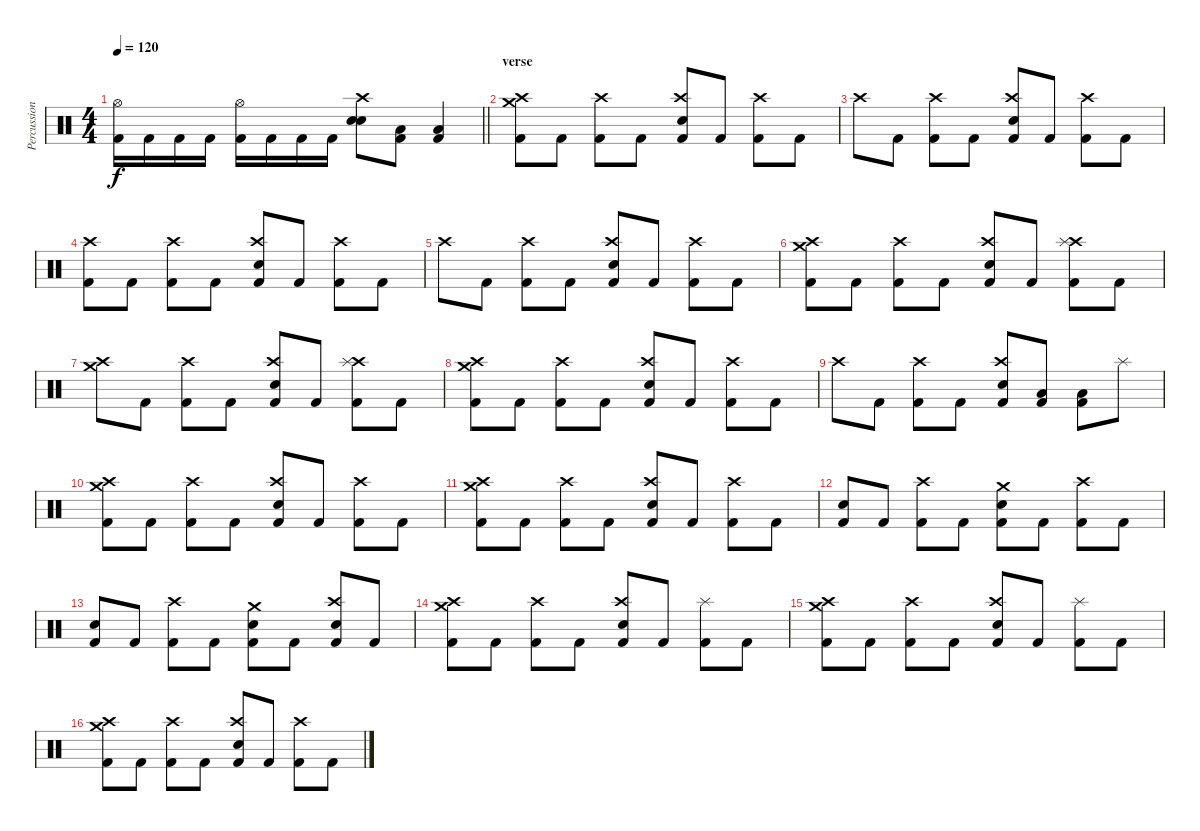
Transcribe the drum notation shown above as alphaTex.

\track ("Percussion" "Percussion") {instrument percussion}
\staff {score}
\articulation defaults
\ts (4 4)
\tempo 120
\clef neutral
\barLineRight lightlight
\ks c
("Hi-Hat (open)" "Kick (hit) 2").16{dy f} "Kick (hit) 2".16 "Kick (hit) 2".16 "Kick (hit) 2".16 ("Hi-Hat (open)" "Kick (hit) 2").16 "Kick (hit) 2".16 "Kick (hit) 2".16 "Kick (hit) 2".16 ("Crash high (hit)" "Electric Snare (hit)" "Electric Snare (hit)").8 ("Low Tom (hit)" "Kick (hit) 2").8 ("Low Tom (hit)" "Kick (hit) 2").4 |
\section ("" "verse")
("Crash high (hit)" "Crash medium (hit)" "Kick (hit) 2").8 "Kick (hit) 2".8 ("Crash high (hit)" "Kick (hit) 2").8 "Kick (hit) 2".8 ("Crash high (hit)" "Electric Snare (hit)" "Kick (hit) 2").8 "Kick (hit) 2".8 ("Crash high (hit)" "Kick (hit) 2").8 "Kick (hit) 2".8 |
"Crash high (hit)".8 "Kick (hit) 2".8 ("Crash high (hit)" "Kick (hit) 2").8 "Kick (hit) 2".8 ("Crash high (hit)" "Electric Snare (hit)" "Kick (hit) 2").8 "Kick (hit) 2".8 ("Crash high (hit)" "Kick (hit) 2").8 "Kick (hit) 2".8 |
("Crash high (hit)" "Kick (hit) 2").8 "Kick (hit) 2".8 ("Crash high (hit)" "Kick (hit) 2").8 "Kick (hit) 2".8 ("Crash high (hit)" "Electric Snare (hit)" "Kick (hit) 2").8 "Kick (hit) 2".8 ("Crash high (hit)" "Kick (hit) 2").8 "Kick (hit) 2".8 |
"Crash high (hit)".8 "Kick (hit) 2".8 ("Crash high (hit)" "Kick (hit) 2").8 "Kick (hit) 2".8 ("Crash high (hit)" "Electric Snare (hit)" "Kick (hit) 2").8 "Kick (hit) 2".8 ("Crash high (hit)" "Kick (hit) 2").8 "Kick (hit) 2".8 |
("Crash high (hit)" "Crash medium (hit)" "Kick (hit) 2").8 "Kick (hit) 2".8 ("Crash high (hit)" "Kick (hit) 2").8 "Kick (hit) 2".8 ("Crash high (hit)" "Electric Snare (hit)" "Kick (hit) 2").8 "Kick (hit) 2".8 ("Crash high (hit)" "Splash (hit)" "Kick (hit) 2").8 "Kick (hit) 2".8 |
("Crash high (hit)" "Crash medium (hit)").8 "Kick (hit) 2".8 ("Crash high (hit)" "Kick (hit) 2").8 "Kick (hit) 2".8 ("Crash high (hit)" "Electric Snare (hit)" "Kick (hit) 2").8 "Kick (hit) 2".8 ("Crash high (hit)" "Splash (hit)" "Kick (hit) 2").8 "Kick (hit) 2".8 |
("Crash high (hit)" "Crash medium (hit)" "Kick (hit) 2").8 "Kick (hit) 2".8 ("Crash high (hit)" "Kick (hit) 2").8 "Kick (hit) 2".8 ("Crash high (hit)" "Electric Snare (hit)" "Kick (hit) 2").8 "Kick (hit) 2".8 ("Crash high (hit)" "Kick (hit) 2").8 "Kick (hit) 2".8 |
"Crash high (hit)".8 "Kick (hit) 2".8 ("Crash high (hit)" "Kick (hit) 2").8 "Kick (hit) 2".8 ("Crash high (hit)" "Electric Snare (hit)" "Kick (hit) 2").8 ("Low Tom (hit)" "Kick (hit) 2").8 ("Low Tom (hit)" "Kick (hit) 2").8 "Splash (hit)".8 |
("Crash high (hit)" "Crash medium (hit)" "Kick (hit) 2").8 "Kick (hit) 2".8 ("Crash high (hit)" "Kick (hit) 2").8 "Kick (hit) 2".8 ("Crash high (hit)" "Electric Snare (hit)" "Kick (hit) 2").8 "Kick (hit) 2".8 ("Crash high (hit)" "Kick (hit) 2").8 "Kick (hit) 2".8 |
("Crash high (hit)" "Crash medium (hit)" "Kick (hit) 2").8 "Kick (hit) 2".8 ("Crash high (hit)" "Kick (hit) 2").8 "Kick (hit) 2".8 ("Crash high (hit)" "Electric Snare (hit)" "Kick (hit) 2").8 "Kick (hit) 2".8 ("Crash high (hit)" "Kick (hit) 2").8 "Kick (hit) 2".8 |
("Electric Snare (hit)" "Kick (hit) 2").8 "Kick (hit) 2".8 ("Crash high (hit)" "Kick (hit) 2").8 "Kick (hit) 2".8 ("Crash medium (hit)" "Electric Snare (hit)" "Kick (hit) 2").8 "Kick (hit) 2".8 ("Kick (hit) 2" "Crash high (hit)").8 "Kick (hit) 2".8 |
("Electric Snare (hit)" "Kick (hit) 2").8 "Kick (hit) 2".8 ("Crash high (hit)" "Kick (hit) 2").8 "Kick (hit) 2".8 ("Crash medium (hit)" "Electric Snare (hit)" "Kick (hit) 2").8 "Kick (hit) 2".8 ("Electric Snare (hit)" "Kick (hit) 2" "Crash high (hit)").8 "Kick (hit) 2".8 |
("Crash high (hit)" "Crash medium (hit)" "Kick (hit) 2").8 "Kick (hit) 2".8 ("Crash high (hit)" "Kick (hit) 2").8 "Kick (hit) 2".8 ("Crash high (hit)" "Electric Snare (hit)" "Kick (hit) 2").8 "Kick (hit) 2".8 ("Splash (hit)" "Kick (hit) 2").8 "Kick (hit) 2".8 |
("Crash high (hit)" "Crash medium (hit)" "Kick (hit) 2").8 "Kick (hit) 2".8 ("Crash high (hit)" "Kick (hit) 2").8 "Kick (hit) 2".8 ("Crash high (hit)" "Electric Snare (hit)" "Kick (hit) 2").8 "Kick (hit) 2".8 ("Splash (hit)" "Kick (hit) 2").8 "Kick (hit) 2".8 |
("Crash high (hit)" "Crash medium (hit)" "Kick (hit) 2").8 "Kick (hit) 2".8 ("Crash high (hit)" "Kick (hit) 2").8 "Kick (hit) 2".8 ("Crash high (hit)" "Electric Snare (hit)" "Kick (hit) 2").8 "Kick (hit) 2".8 ("Crash high (hit)" "Kick (hit) 2").8 "Kick (hit) 2".8
